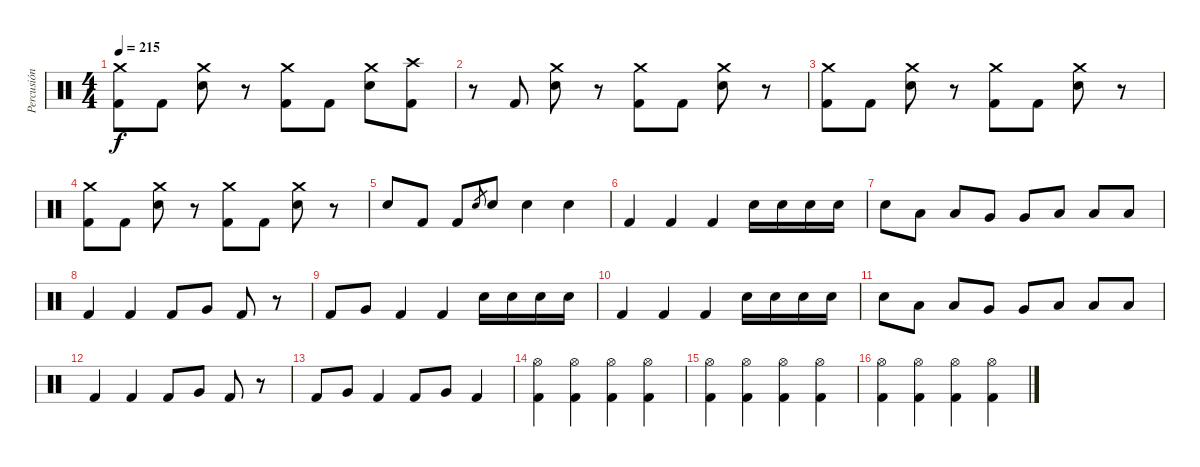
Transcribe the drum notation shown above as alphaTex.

\track ("Percusión" "Percusión") {instrument percussion}
\staff {score}
\articulation defaults
\ts (4 4)
\tempo 215
\clef neutral
\ks c
("Crash medium (hit)" "Kick (hit) 2").8{dy f} "Kick (hit) 2".8 ("Crash medium (hit)" "Electric Snare (hit)").8 r.8 ("Crash medium (hit)" "Kick (hit) 2").8 "Kick (hit) 2".8 ("Crash medium (hit)" "Electric Snare (hit)").8 ("Crash high (hit)" "Kick (hit) 2").8 |
r.8 "Kick (hit) 2".8 ("Crash medium (hit)" "Electric Snare (hit)").8 r.8 ("Crash medium (hit)" "Kick (hit) 2").8 "Kick (hit) 2".8 ("Crash medium (hit)" "Electric Snare (hit)").8 r.8 |
("Crash medium (hit)" "Kick (hit) 2").8 "Kick (hit) 2".8 ("Crash medium (hit)" "Electric Snare (hit)").8 r.8 ("Crash medium (hit)" "Kick (hit) 2").8 "Kick (hit) 2".8 ("Crash medium (hit)" "Electric Snare (hit)").8 r.8 |
("Crash medium (hit)" "Kick (hit) 2").8 "Kick (hit) 2".8 ("Crash medium (hit)" "Electric Snare (hit)").8 r.8 ("Crash medium (hit)" "Kick (hit) 2").8 "Kick (hit) 2".8 ("Crash medium (hit)" "Electric Snare (hit)").8 r.8 |
"Electric Snare (hit)".8 "Kick (hit) 2".8 "Kick (hit) 2".8 "Electric Snare (hit)".8{gr} "Electric Snare (hit)".8 "Electric Snare (hit)".4 "Electric Snare (hit)".4 |
"Kick (hit) 2".4 "Kick (hit) 2".4 "Kick (hit) 2".4 "Electric Snare (hit)".16 "Electric Snare (hit)".16 "Electric Snare (hit)".16 "Electric Snare (hit)".16 |
"Electric Snare (hit)".8 "Low Tom (hit)".8 "Low Tom (hit)".8 "Very Low Tom (hit)".8 "Very Low Tom (hit)".8 "Low Floor Tom (hit)".8 "Low Floor Tom (hit)".8 "Low Floor Tom (hit)".8 |
"Kick (hit) 2".4 "Kick (hit) 2".4 "Kick (hit) 2".8 "Very Low Tom (hit)".8 "Kick (hit) 2".8 r.8 |
"Kick (hit) 2".8 "Very Low Tom (hit)".8 "Kick (hit) 2".4 "Kick (hit) 2".4 "Electric Snare (hit)".16 "Electric Snare (hit)".16 "Electric Snare (hit)".16 "Electric Snare (hit)".16 |
"Kick (hit) 2".4 "Kick (hit) 2".4 "Kick (hit) 2".4 "Electric Snare (hit)".16 "Electric Snare (hit)".16 "Electric Snare (hit)".16 "Electric Snare (hit)".16 |
"Electric Snare (hit)".8 "Low Tom (hit)".8 "Low Tom (hit)".8 "Very Low Tom (hit)".8 "Very Low Tom (hit)".8 "Low Floor Tom (hit)".8 "Low Floor Tom (hit)".8 "Low Floor Tom (hit)".8 |
"Kick (hit) 2".4 "Kick (hit) 2".4 "Kick (hit) 2".8 "Very Low Tom (hit)".8 "Kick (hit) 2".8 r.8 |
"Kick (hit) 2".8 "Very Low Tom (hit)".8 "Kick (hit) 2".4 "Kick (hit) 2".8 "Very Low Tom (hit)".8 "Kick (hit) 2".4 |
("Hi-Hat (open)" "Kick (hit) 2").4 ("Hi-Hat (open)" "Kick (hit) 2").4 ("Hi-Hat (open)" "Kick (hit) 2").4 ("Hi-Hat (open)" "Kick (hit) 2").4 |
("Hi-Hat (open)" "Kick (hit) 2").4 ("Hi-Hat (open)" "Kick (hit) 2").4 ("Hi-Hat (open)" "Kick (hit) 2").4 ("Hi-Hat (open)" "Kick (hit) 2").4 |
("Hi-Hat (open)" "Kick (hit) 2").4 ("Hi-Hat (open)" "Kick (hit) 2").4 ("Hi-Hat (open)" "Kick (hit) 2").4 ("Hi-Hat (open)" "Kick (hit) 2").4
